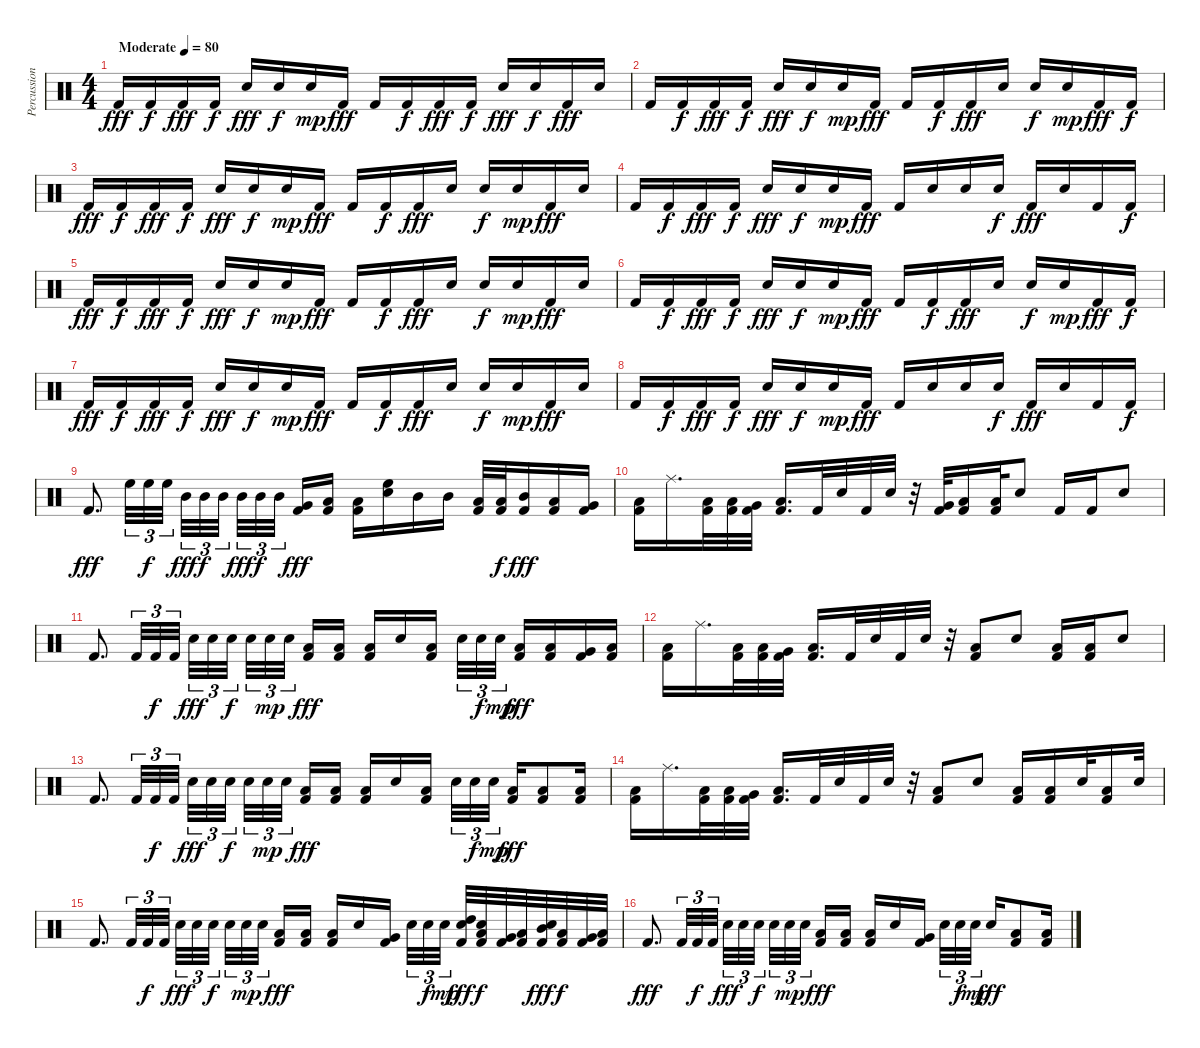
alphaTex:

\track ("Percussion2" "Percussion") {instrument percussion}
\staff {score}
\articulation defaults
\ts (4 4)
\tempo (80 "Moderate")
\clef neutral
\ks c "Kick (hit) 2".16{dy fff} "Kick (hit) 2".16{dy f} "Kick (hit) 2".16{dy fff} "Kick (hit) 2".16{dy f} "Snare (hit) 2".16{dy fff} "Snare (hit) 2".16{dy f} "Snare (hit) 2".16{dy mp} "Kick (hit) 2".16{dy fff} "Kick (hit) 2".16 "Kick (hit) 2".16{dy f} "Kick (hit) 2".16{dy fff} "Kick (hit) 2".16{dy f} "Snare (hit) 2".16{dy fff} "Snare (hit) 2".16{dy f} "Kick (hit) 2".16{dy fff} "Snare (hit) 2".16
|
"Kick (hit) 2".16 "Kick (hit) 2".16{dy f} "Kick (hit) 2".16{dy fff} "Kick (hit) 2".16{dy f} "Snare (hit) 2".16{dy fff} "Snare (hit) 2".16{dy f} "Snare (hit) 2".16{dy mp} "Kick (hit) 2".16{dy fff} "Kick (hit) 2".16 "Kick (hit) 2".16{dy f} "Kick (hit) 2".16{dy fff} "Snare (hit) 2".16 "Snare (hit) 2".16{dy f} "Snare (hit) 2".16{dy mp} "Kick (hit) 2".16{dy fff} "Kick (hit) 2".16{dy f} |
"Kick (hit) 2".16{dy fff} "Kick (hit) 2".16{dy f} "Kick (hit) 2".16{dy fff} "Kick (hit) 2".16{dy f} "Snare (hit) 2".16{dy fff} "Snare (hit) 2".16{dy f} "Snare (hit) 2".16{dy mp} "Kick (hit) 2".16{dy fff} "Kick (hit) 2".16 "Kick (hit) 2".16{dy f} "Kick (hit) 2".16{dy fff} "Snare (hit) 2".16 "Snare (hit) 2".16{dy f} "Snare (hit) 2".16{dy mp} "Kick (hit) 2".16{dy fff} "Snare (hit) 2".16 |
"Kick (hit) 2".16 "Kick (hit) 2".16{dy f} "Kick (hit) 2".16{dy fff} "Kick (hit) 2".16{dy f} "Snare (hit) 2".16{dy fff} "Snare (hit) 2".16{dy f} "Snare (hit) 2".16{dy mp} "Kick (hit) 2".16{dy fff} "Kick (hit) 2".16 "Snare (hit) 2".16 "Snare (hit) 2".16 "Snare (hit) 2".16{dy f} "Kick (hit) 2".16{dy fff} "Snare (hit) 2".16 "Kick (hit) 2".16 "Kick (hit) 2".16{dy f} |
"Kick (hit) 2".16{dy fff} "Kick (hit) 2".16{dy f} "Kick (hit) 2".16{dy fff} "Kick (hit) 2".16{dy f} "Snare (hit) 2".16{dy fff} "Snare (hit) 2".16{dy f} "Snare (hit) 2".16{dy mp} "Kick (hit) 2".16{dy fff} "Kick (hit) 2".16 "Kick (hit) 2".16{dy f} "Kick (hit) 2".16{dy fff} "Snare (hit) 2".16 "Snare (hit) 2".16{dy f} "Snare (hit) 2".16{dy mp} "Kick (hit) 2".16{dy fff} "Snare (hit) 2".16 |
"Kick (hit) 2".16 "Kick (hit) 2".16{dy f} "Kick (hit) 2".16{dy fff} "Kick (hit) 2".16{dy f} "Snare (hit) 2".16{dy fff} "Snare (hit) 2".16{dy f} "Snare (hit) 2".16{dy mp} "Kick (hit) 2".16{dy fff} "Kick (hit) 2".16 "Kick (hit) 2".16{dy f} "Kick (hit) 2".16{dy fff} "Snare (hit) 2".16 "Snare (hit) 2".16{dy f} "Snare (hit) 2".16{dy mp} "Kick (hit) 2".16{dy fff} "Kick (hit) 2".16{dy f} |
"Kick (hit) 2".16{dy fff} "Kick (hit) 2".16{dy f} "Kick (hit) 2".16{dy fff} "Kick (hit) 2".16{dy f} "Snare (hit) 2".16{dy fff} "Snare (hit) 2".16{dy f} "Snare (hit) 2".16{dy mp} "Kick (hit) 2".16{dy fff} "Kick (hit) 2".16 "Kick (hit) 2".16{dy f} "Kick (hit) 2".16{dy fff} "Snare (hit) 2".16 "Snare (hit) 2".16{dy f} "Snare (hit) 2".16{dy mp} "Kick (hit) 2".16{dy fff} "Snare (hit) 2".16 |
"Kick (hit) 2".16 "Kick (hit) 2".16{dy f} "Kick (hit) 2".16{dy fff} "Kick (hit) 2".16{dy f} "Snare (hit) 2".16{dy fff} "Snare (hit) 2".16{dy f} "Snare (hit) 2".16{dy mp} "Kick (hit) 2".16{dy fff} "Kick (hit) 2".16 "Snare (hit) 2".16 "Snare (hit) 2".16 "Snare (hit) 2".16{dy f} "Kick (hit) 2".16{dy fff} "Snare (hit) 2".16 "Kick (hit) 2".16 "Kick (hit) 2".16{dy f} |
"Kick (hit) 2".8{d dy fff} "High Floor Tom (hit)".32{tu (3 2)} "High Floor Tom (hit)".32{tu (3 2) dy f} "High Floor Tom (hit)".32{tu (3 2)} "Mid Tom (hit)".32{tu (3 2) dy fff} "Mid Tom (hit)".32{tu (3 2) dy f} "Mid Tom (hit)".32{tu (3 2) beam splitsecondary} "Mid Tom (hit)".32{tu (3 2) dy fff} "Mid Tom (hit)".32{tu (3 2) dy f} "Mid Tom (hit)".32{tu (3 2) beam splitsecondary} ("Kick (hit) 2" "Very Low Tom (hit)").16{dy fff} ("Kick (hit) 2" "Low Floor Tom (hit)").16 ("Kick (hit) 2" "Low Floor Tom (hit)").16 ("Snare (hit) 2" "High Floor Tom (hit)").16 "Mid Tom (hit)".16 "Mid Tom (hit)".16 ("Kick (hit) 2" "Low Floor Tom (hit)").32 ("Kick (hit) 2" "Low Floor Tom (hit)").32{dy f} ("Kick (hit) 2" "Mid Tom (hit)").16{dy fff} ("Kick (hit) 2" "Low Tom (hit)").16 ("Kick (hit) 2" "Very Low Tom (hit)").16 |
("Kick (hit) 2" "Low Floor Tom (hit)").16 "Ride (middle)".16{d} ("Kick (hit) 2" "Low Floor Tom (hit)").32 ("Kick (hit) 2" "Low Tom (hit)").32 ("Kick (hit) 2" "Very Low Tom (hit)").32 ("Kick (hit) 2" "Low Floor Tom (hit)").16{d} "Kick (hit) 2".32 "Snare (hit) 2".32 "Kick (hit) 2".32 "Snare (hit) 2".32 r.32 ("Kick (hit) 2" "Very Low Tom (hit)").32 ("Kick (hit) 2" "Low Floor Tom (hit)").16 ("Kick (hit) 2" "Low Floor Tom (hit)").32 "Snare (hit) 2".8 "Kick (hit) 2".16 "Kick (hit) 2".16 "Snare (hit) 2".8 |
"Kick (hit) 2".8{d} "Kick (hit) 2".32{tu (3 2)} "Kick (hit) 2".32{tu (3 2) dy f} "Kick (hit) 2".32{tu (3 2)} "Snare (hit) 2".32{tu (3 2) dy fff} "Snare (hit) 2".32{tu (3 2)} "Snare (hit) 2".32{tu (3 2) dy f beam splitsecondary} "Snare (hit) 2".32{tu (3 2)} "Snare (hit) 2".32{tu (3 2) dy mp} "Snare (hit) 2".32{tu (3 2) beam splitsecondary} ("Kick (hit) 2" "Low Floor Tom (hit)").16{dy fff} ("Kick (hit) 2" "Low Floor Tom (hit)").16 ("Kick (hit) 2" "Low Floor Tom (hit)").16 "Snare (hit) 2".16 ("Kick (hit) 2" "Low Tom (hit)").16{beam splitsecondary} "Snare (hit) 2".32{tu (3 2)} "Snare (hit) 2".32{tu (3 2) dy f} "Snare (hit) 2".32{tu (3 2) dy mp} ("Kick (hit) 2" "Low Floor Tom (hit)").16{dy fff} ("Kick (hit) 2" "Low Tom (hit)").16 ("Kick (hit) 2" "Very Low Tom (hit)").16 ("Kick (hit) 2" "Low Floor Tom (hit)").16 |
("Kick (hit) 2" "Low Floor Tom (hit)").16 "Ride (middle)".16{d} ("Kick (hit) 2" "Low Floor Tom (hit)").32 ("Kick (hit) 2" "Low Tom (hit)").32 ("Kick (hit) 2" "Very Low Tom (hit)").32 ("Kick (hit) 2" "Low Floor Tom (hit)").16{d} "Kick (hit) 2".32 "Snare (hit) 2".32 "Kick (hit) 2".32 "Snare (hit) 2".32 r.32 ("Kick (hit) 2" "Low Floor Tom (hit)").8 "Snare (hit) 2".8 ("Kick (hit) 2" "Low Floor Tom (hit)").16 ("Kick (hit) 2" "Low Floor Tom (hit)").16 "Snare (hit) 2".8 |
"Kick (hit) 2".8{d} "Kick (hit) 2".32{tu (3 2)} "Kick (hit) 2".32{tu (3 2) dy f} "Kick (hit) 2".32{tu (3 2)} "Snare (hit) 2".32{tu (3 2) dy fff} "Snare (hit) 2".32{tu (3 2)} "Snare (hit) 2".32{tu (3 2) dy f beam splitsecondary} "Snare (hit) 2".32{tu (3 2)} "Snare (hit) 2".32{tu (3 2) dy mp} "Snare (hit) 2".32{tu (3 2) beam splitsecondary} ("Kick (hit) 2" "Low Floor Tom (hit)").16{dy fff} ("Kick (hit) 2" "Low Floor Tom (hit)").16 ("Kick (hit) 2" "Low Floor Tom (hit)").16 "Snare (hit) 2".16 ("Kick (hit) 2" "Low Tom (hit)").16{beam splitsecondary} "Snare (hit) 2".32{tu (3 2)} "Snare (hit) 2".32{tu (3 2) dy f} "Snare (hit) 2".32{tu (3 2) dy mp} ("Kick (hit) 2" "Low Floor Tom (hit)").16{dy fff} ("Kick (hit) 2" "Low Tom (hit)").8 ("Kick (hit) 2" "Low Tom (hit)").16 |
("Kick (hit) 2" "Low Floor Tom (hit)").16 "Ride (middle)".16{d} ("Kick (hit) 2" "Low Floor Tom (hit)").32 ("Kick (hit) 2" "Low Tom (hit)").32 ("Kick (hit) 2" "Very Low Tom (hit)").32 ("Kick (hit) 2" "Low Floor Tom (hit)").16{d} "Kick (hit) 2".32 "Snare (hit) 2".32 "Kick (hit) 2".32 "Snare (hit) 2".32 r.32 ("Kick (hit) 2" "Low Floor Tom (hit)").8 "Snare (hit) 2".8 ("Kick (hit) 2" "Low Floor Tom (hit)").16 ("Kick (hit) 2" "Low Floor Tom (hit)").16 "Snare (hit) 2".32 ("Kick (hit) 2" "Low Floor Tom (hit)").16 "Snare (hit) 2".32 |
"Kick (hit) 2".8{d} "Kick (hit) 2".32{tu (3 2)} "Kick (hit) 2".32{tu (3 2) dy f} "Kick (hit) 2".32{tu (3 2)} "Snare (hit) 2".32{tu (3 2) dy fff} "Snare (hit) 2".32{tu (3 2)} "Snare (hit) 2".32{tu (3 2) dy f beam splitsecondary} "Snare (hit) 2".32{tu (3 2)} "Snare (hit) 2".32{tu (3 2) dy mp} "Snare (hit) 2".32{tu (3 2) beam splitsecondary} ("Kick (hit) 2" "Low Floor Tom (hit)").16{dy fff} ("Kick (hit) 2" "Low Floor Tom (hit)").16 ("Kick (hit) 2" "Low Floor Tom (hit)").16 "Snare (hit) 2".16 ("Kick (hit) 2" "Very Low Tom (hit)").16{beam splitsecondary} "Snare (hit) 2".32{tu (3 2)} "Snare (hit) 2".32{tu (3 2) dy f} "Snare (hit) 2".32{tu (3 2) dy mp} ("Kick (hit) 2" "Snare (hit) 2" "High Tom (hit)").32{dy fff} ("Kick (hit) 2" "Snare (hit) 2" "Low Tom (hit)").32{dy f} ("Kick (hit) 2" "Very Low Tom (hit)").32 ("Kick (hit) 2" "Low Floor Tom (hit)").32 ("Kick (hit) 2" "Snare (hit) 2" "Mid Tom (hit)").32{dy fff} ("Kick (hit) 2" "Low Tom (hit)").32{dy f} ("Kick (hit) 2" "Very Low Tom (hit)").32 ("Kick (hit) 2" "Low Floor Tom (hit)").32 |
"Kick (hit) 2".8{d dy fff} "Kick (hit) 2".32{tu (3 2)} "Kick (hit) 2".32{tu (3 2) dy f} "Kick (hit) 2".32{tu (3 2)} "Snare (hit) 2".32{tu (3 2) dy fff} "Snare (hit) 2".32{tu (3 2)} "Snare (hit) 2".32{tu (3 2) dy f beam splitsecondary} "Snare (hit) 2".32{tu (3 2)} "Snare (hit) 2".32{tu (3 2) dy mp} "Snare (hit) 2".32{tu (3 2) beam splitsecondary} ("Kick (hit) 2" "Low Floor Tom (hit)").16{dy fff} ("Kick (hit) 2" "Low Floor Tom (hit)").16 ("Kick (hit) 2" "Low Floor Tom (hit)").16 "Snare (hit) 2".16 ("Kick (hit) 2" "Very Low Tom (hit)").16{beam splitsecondary} "Snare (hit) 2".32{tu (3 2)} "Snare (hit) 2".32{tu (3 2) dy f} "Snare (hit) 2".32{tu (3 2) dy mp} "Snare (hit) 2".16{dy fff} ("Kick (hit) 2" "Low Floor Tom (hit)").8 ("Kick (hit) 2" "Low Floor Tom (hit)").16
